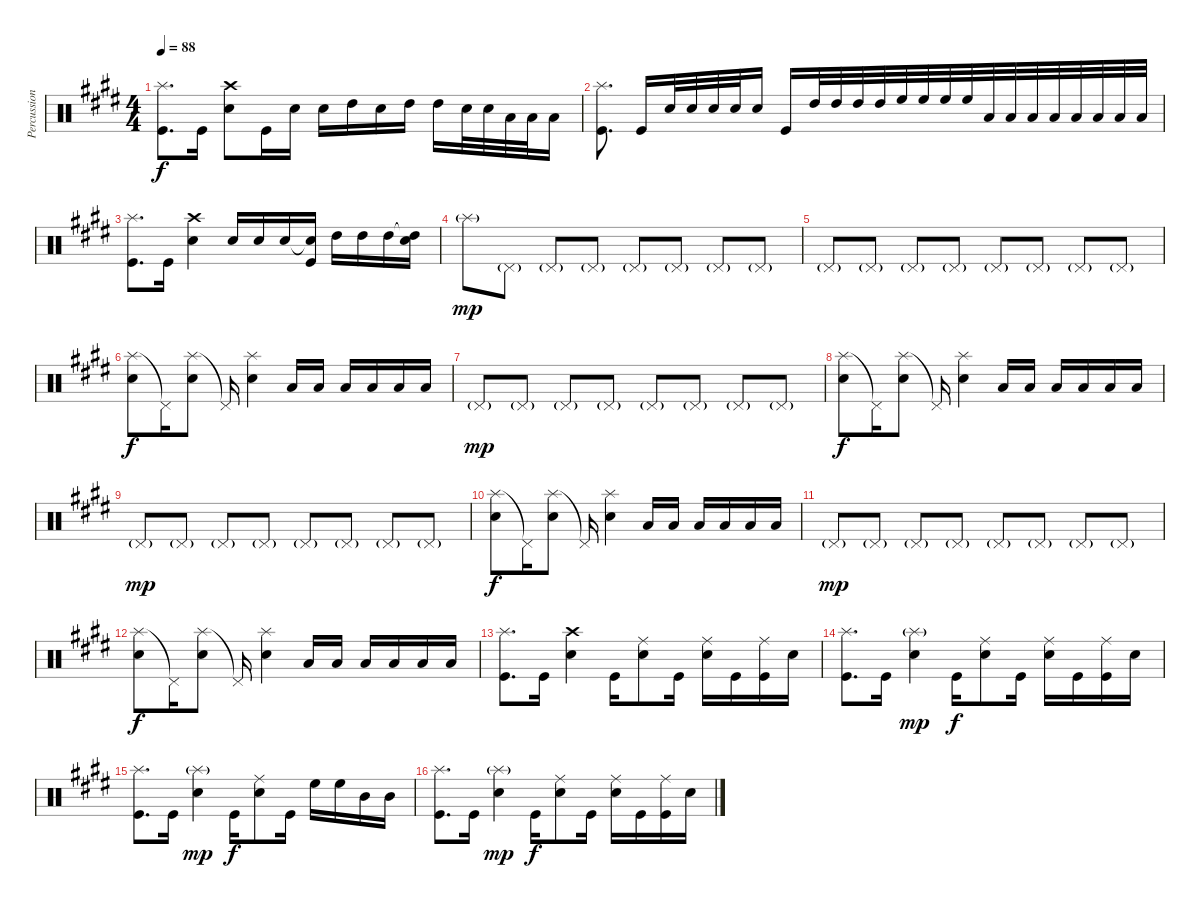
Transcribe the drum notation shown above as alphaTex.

\track ("Percussion" "Percussion") {instrument percussion}
\staff {score}
\articulation defaults
\ts (4 4)
\tempo 88
\clef neutral
\ks e
("Splash (hit)" "Kick (hit)").8{d dy f} "Kick (hit)".16 ("Crash high (hit)" "Snare (hit) 2").8 "Kick (hit)".16 "Snare (hit) 2".16 "Snare (hit) 2".16 "High Tom (hit)".16 "Snare (hit) 2".16 "High Tom (hit)".16 "High Tom (hit)".16 "Snare (hit) 2".32 "Snare (hit) 2".32 "Low Tom (hit)".32 "Low Tom (hit)".32 "Low Tom (hit)".16 |
("Splash (hit)" "Kick (hit)").8{d beam split} "Kick (hit)".16{beam merge} "Snare (hit) 2".32 "Snare (hit) 2".32 "Snare (hit) 2".32 "Snare (hit) 2".32 "Snare (hit) 2".16{beam split} "Kick (hit)".16{beam merge} "High Tom (hit)".32 "High Tom (hit)".32{beam merge} "High Tom (hit)".32 "High Tom (hit)".32 "High Floor Tom (hit)".32{beam merge} "High Floor Tom (hit)".32{beam merge} "High Floor Tom (hit)".32{beam merge} "High Floor Tom (hit)".32{beam merge} "Low Tom (hit)".32 "Low Tom (hit)".32 "Low Tom (hit)".32 "Low Tom (hit)".32 "Low Floor Tom (hit)".32 "Low Floor Tom (hit)".32 "Low Floor Tom (hit)".32 "Low Floor Tom (hit)".32 |
("Splash (hit)" "Kick (hit)").8{d} "Kick (hit)".16 ("Crash high (hit)" "Snare (hit) 2").4 "Snare (hit) 2".16 "Snare (hit) 2".16 "Snare (hit) 2".16 ("Snare (hit) 2"{t} "Kick (hit)").16 "High Tom (hit)".16 "High Tom (hit)".16 "High Tom (hit)".16 ("High Tom (hit)"{t} "Snare (hit) 2").16 |
"Splash (hit)"{g}.8{dy mp} "Pedal Hi-Hat (hit)"{g}.8 "Pedal Hi-Hat (hit)"{g}.8 "Pedal Hi-Hat (hit)"{g}.8 "Pedal Hi-Hat (hit)"{g}.8 "Pedal Hi-Hat (hit)"{g}.8 "Pedal Hi-Hat (hit)"{g}.8 "Pedal Hi-Hat (hit)"{g}.8 |
"Pedal Hi-Hat (hit)"{g}.8 "Pedal Hi-Hat (hit)"{g}.8 "Pedal Hi-Hat (hit)"{g}.8 "Pedal Hi-Hat (hit)"{g}.8 "Pedal Hi-Hat (hit)"{g}.8 "Pedal Hi-Hat (hit)"{g}.8 "Pedal Hi-Hat (hit)"{g}.8 "Pedal Hi-Hat (hit)"{g}.8 |
("Splash (hit)" "Snare (hit) 2").8{dy f} "Pedal Hi-Hat (hit)"{t}.16 ("Splash (hit)" "Snare (hit) 2").8 "Pedal Hi-Hat (hit)"{t}.16 ("Splash (hit)" "Snare (hit) 2").4 "Low Floor Tom (hit)".16 "Low Floor Tom (hit)".16 "Low Floor Tom (hit)".16 "Low Floor Tom (hit)".16 "Low Floor Tom (hit)".16 "Low Floor Tom (hit)".16 |
"Pedal Hi-Hat (hit)"{g}.8{dy mp} "Pedal Hi-Hat (hit)"{g}.8 "Pedal Hi-Hat (hit)"{g}.8 "Pedal Hi-Hat (hit)"{g}.8 "Pedal Hi-Hat (hit)"{g}.8 "Pedal Hi-Hat (hit)"{g}.8 "Pedal Hi-Hat (hit)"{g}.8 "Pedal Hi-Hat (hit)"{g}.8 |
("Splash (hit)" "Snare (hit) 2").8{dy f} "Pedal Hi-Hat (hit)"{t}.16 ("Splash (hit)" "Snare (hit) 2").8 "Pedal Hi-Hat (hit)"{t}.16 ("Splash (hit)" "Snare (hit) 2").4 "Low Floor Tom (hit)".16 "Low Floor Tom (hit)".16 "Low Floor Tom (hit)".16 "Low Floor Tom (hit)".16 "Low Floor Tom (hit)".16 "Low Floor Tom (hit)".16 |
"Pedal Hi-Hat (hit)"{g}.8{dy mp} "Pedal Hi-Hat (hit)"{g}.8 "Pedal Hi-Hat (hit)"{g}.8 "Pedal Hi-Hat (hit)"{g}.8 "Pedal Hi-Hat (hit)"{g}.8 "Pedal Hi-Hat (hit)"{g}.8 "Pedal Hi-Hat (hit)"{g}.8 "Pedal Hi-Hat (hit)"{g}.8 |
("Splash (hit)" "Snare (hit) 2").8{dy f} "Pedal Hi-Hat (hit)"{t}.16 ("Splash (hit)" "Snare (hit) 2").8 "Pedal Hi-Hat (hit)"{t}.16 ("Splash (hit)" "Snare (hit) 2").4 "Low Floor Tom (hit)".16 "Low Floor Tom (hit)".16 "Low Floor Tom (hit)".16 "Low Floor Tom (hit)".16 "Low Floor Tom (hit)".16 "Low Floor Tom (hit)".16 |
"Pedal Hi-Hat (hit)"{g}.8{dy mp} "Pedal Hi-Hat (hit)"{g}.8 "Pedal Hi-Hat (hit)"{g}.8 "Pedal Hi-Hat (hit)"{g}.8 "Pedal Hi-Hat (hit)"{g}.8 "Pedal Hi-Hat (hit)"{g}.8 "Pedal Hi-Hat (hit)"{g}.8 "Pedal Hi-Hat (hit)"{g}.8 |
("Splash (hit)" "Snare (hit) 2").8{dy f} "Pedal Hi-Hat (hit)"{t}.16 ("Splash (hit)" "Snare (hit) 2").8 "Pedal Hi-Hat (hit)"{t}.16 ("Splash (hit)" "Snare (hit) 2").4 "Low Floor Tom (hit)".16 "Low Floor Tom (hit)".16 "Low Floor Tom (hit)".16 "Low Floor Tom (hit)".16 "Low Floor Tom (hit)".16 "Low Floor Tom (hit)".16 |
("Splash (hit)" "Kick (hit)").8{d} "Kick (hit)".16 ("Crash high (hit)" "Snare (hit) 2").4 "Kick (hit)".16 ("Ride (middle)" "Snare (hit) 2").8 "Kick (hit)".16 ("Ride (middle)" "Snare (hit) 2").16 "Kick (hit)".16 ("Ride (middle)" "Kick (hit)").16 "Snare (hit) 2".16 |
("Splash (hit)" "Kick (hit)").8{d} "Kick (hit)".16 ("Splash (hit)"{g} "Snare (hit) 2").4{dy mp} "Kick (hit)".16{dy f} ("Ride (middle)" "Snare (hit) 2").8 "Kick (hit)".16 ("Ride (middle)" "Snare (hit) 2").16 "Kick (hit)".16 ("Ride (middle)" "Kick (hit)").16 "Snare (hit) 2".16 |
("Splash (hit)" "Kick (hit)").8{d} "Kick (hit)".16 ("Splash (hit)"{g} "Snare (hit) 2").4{dy mp} "Kick (hit)".16{dy f} ("Ride (middle)" "Snare (hit) 2").8 "Kick (hit)".16 "High Floor Tom (hit)".16 "High Floor Tom (hit)".16 "Mid Tom (hit)".16 "Mid Tom (hit)".16 |
("Splash (hit)" "Kick (hit)").8{d} "Kick (hit)".16 ("Splash (hit)"{g} "Snare (hit) 2").4{dy mp} "Kick (hit)".16{dy f} ("Ride (middle)" "Snare (hit) 2").8 "Kick (hit)".16 ("Ride (middle)" "Snare (hit) 2").16 "Kick (hit)".16 ("Ride (middle)" "Kick (hit)").16 "Snare (hit) 2".16
